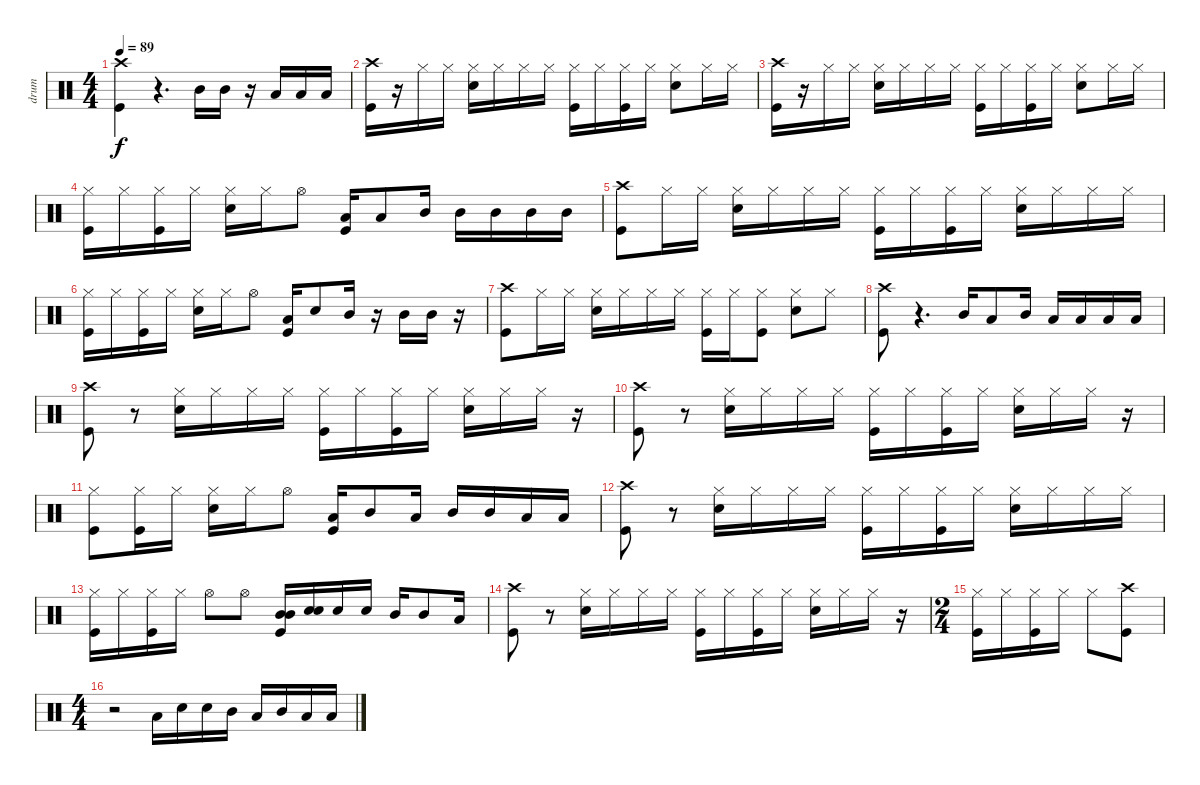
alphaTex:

\track ("drum" "drum") {instrument percussion}
\staff {score}
\articulation defaults
\ts (4 4)
\tempo 89
\clef neutral
\ks c
("Crash high (hit)" "Kick (hit)").4{dy f} r.4{d} "Mid Tom (hit)".16 "Mid Tom (hit)".16 r.16 "Low Floor Tom (hit)".16 "Low Floor Tom (hit)".16 "Low Floor Tom (hit)".16 |
("Crash high (hit)" "Kick (hit)").16 r.16 "Hi-Hat (closed)".16 "Hi-Hat (closed)".16 ("Hi-Hat (closed)" "Snare (hit) 2").16 "Hi-Hat (closed)".16 "Hi-Hat (closed)".16 "Hi-Hat (closed)".16 ("Kick (hit)" "Hi-Hat (closed)").16 "Hi-Hat (closed)".16 ("Kick (hit)" "Hi-Hat (closed)").16 "Hi-Hat (closed)".16 ("Snare (hit) 2" "Hi-Hat (closed)").8 "Hi-Hat (closed)".16 "Hi-Hat (closed)".16 |
("Crash high (hit)" "Kick (hit)").16 r.16 "Hi-Hat (closed)".16 "Hi-Hat (closed)".16 ("Hi-Hat (closed)" "Snare (hit) 2").16 "Hi-Hat (closed)".16 "Hi-Hat (closed)".16 "Hi-Hat (closed)".16 ("Kick (hit)" "Hi-Hat (closed)").16 "Hi-Hat (closed)".16 ("Kick (hit)" "Hi-Hat (closed)").16 "Hi-Hat (closed)".16 ("Snare (hit) 2" "Hi-Hat (closed)").8 "Hi-Hat (closed)".16 "Hi-Hat (closed)".16 |
("Hi-Hat (closed)" "Kick (hit)").16 "Hi-Hat (closed)".16 ("Hi-Hat (closed)" "Kick (hit)").16 "Hi-Hat (closed)".16 ("Hi-Hat (closed)" "Snare (hit) 2").16 "Hi-Hat (closed)".16 "Hi-Hat (open)".8 ("Low Floor Tom (hit)" "Kick (hit)").16 "Low Floor Tom (hit)".8 "Mid Tom (hit)".16 "Mid Tom (hit)".16 "Mid Tom (hit)".16 "Mid Tom (hit)".16 "Mid Tom (hit)".16 |
("Crash high (hit)" "Kick (hit)").8 "Hi-Hat (closed)".16 "Hi-Hat (closed)".16 ("Hi-Hat (closed)" "Snare (hit) 2").16 "Hi-Hat (closed)".16 "Hi-Hat (closed)".16 "Hi-Hat (closed)".16 ("Hi-Hat (closed)" "Kick (hit)").16 "Hi-Hat (closed)".16 ("Hi-Hat (closed)" "Kick (hit)").16 "Hi-Hat (closed)".16 ("Hi-Hat (closed)" "Snare (hit) 2").16 "Hi-Hat (closed)".16 "Hi-Hat (closed)".16 "Hi-Hat (closed)".16 |
("Kick (hit)" "Hi-Hat (closed)").16 "Hi-Hat (closed)".16 ("Kick (hit)" "Hi-Hat (closed)").16 "Hi-Hat (closed)".16 ("Snare (hit) 2" "Hi-Hat (closed)").16 "Hi-Hat (closed)".16 "Hi-Hat (open)".8 ("Low Floor Tom (hit)" "Kick (hit)").16 "Snare (hit) 2".8 "Mid Tom (hit)".16 r.16 "Mid Tom (hit)".16 "Mid Tom (hit)".16 r.16 |
("Crash high (hit)" "Kick (hit)").8 "Hi-Hat (closed)".16 "Hi-Hat (closed)".16 ("Snare (hit) 2" "Hi-Hat (closed)").16 "Hi-Hat (closed)".16 "Hi-Hat (closed)".16 "Hi-Hat (closed)".16 ("Kick (hit)" "Hi-Hat (closed)").16 "Hi-Hat (closed)".16 ("Kick (hit)" "Hi-Hat (closed)").8 ("Snare (hit) 2" "Hi-Hat (closed)").8 "Hi-Hat (closed)".8 |
("Crash high (hit)" "Kick (hit)").8 r.4{d} "Mid Tom (hit)".16 "Low Floor Tom (hit)".8 "Mid Tom (hit)".16 "Low Floor Tom (hit)".16 "Low Floor Tom (hit)".16 "Low Floor Tom (hit)".16 "Low Floor Tom (hit)".16 |
("Crash high (hit)" "Kick (hit)").8 r.8 ("Hi-Hat (closed)" "Snare (hit) 2").16 "Hi-Hat (closed)".16 "Hi-Hat (closed)".16 "Hi-Hat (closed)".16 ("Hi-Hat (closed)" "Kick (hit)").16 "Hi-Hat (closed)".16 ("Hi-Hat (closed)" "Kick (hit)").16 "Hi-Hat (closed)".16 ("Hi-Hat (closed)" "Snare (hit) 2").16 "Hi-Hat (closed)".16 "Hi-Hat (closed)".16 r.16 |
("Crash high (hit)" "Kick (hit)").8 r.8 ("Hi-Hat (closed)" "Snare (hit) 2").16 "Hi-Hat (closed)".16 "Hi-Hat (closed)".16 "Hi-Hat (closed)".16 ("Hi-Hat (closed)" "Kick (hit)").16 "Hi-Hat (closed)".16 ("Hi-Hat (closed)" "Kick (hit)").16 "Hi-Hat (closed)".16 ("Hi-Hat (closed)" "Snare (hit) 2").16 "Hi-Hat (closed)".16 "Hi-Hat (closed)".16 r.16 |
("Hi-Hat (closed)" "Kick (hit)").8 ("Hi-Hat (closed)" "Kick (hit)").16 "Hi-Hat (closed)".16 ("Hi-Hat (closed)" "Snare (hit) 2").16 "Hi-Hat (closed)".16 "Hi-Hat (open)".8 ("Low Floor Tom (hit)" "Kick (hit)").16 "Mid Tom (hit)".8 "Low Tom (hit)".16 "Mid Tom (hit)".16 "Mid Tom (hit)".16 "Low Floor Tom (hit)".16 "Low Floor Tom (hit)".16 |
("Crash high (hit)" "Kick (hit)").8 r.8 ("Hi-Hat (closed)" "Snare (hit) 2").16 "Hi-Hat (closed)".16 "Hi-Hat (closed)".16 "Hi-Hat (closed)".16 ("Hi-Hat (closed)" "Kick (hit)").16 "Hi-Hat (closed)".16 ("Hi-Hat (closed)" "Kick (hit)").16 "Hi-Hat (closed)".16 ("Hi-Hat (closed)" "Snare (hit) 2").16 "Hi-Hat (closed)".16 "Hi-Hat (closed)".16 "Hi-Hat (closed)".16 |
("Kick (hit)" "Hi-Hat (closed)").16 "Hi-Hat (closed)".16 ("Hi-Hat (closed)" "Kick (hit)").16 "Hi-Hat (closed)".16 "Hi-Hat (open)".8 "Hi-Hat (open)".8 ("Mid Tom (hit)" "Kick (hit)" "Mid Tom (hit)").16 ("Snare (hit) 2" "Snare (hit) 2").16 "Snare (hit) 2".16 "Snare (hit) 2".16 "Mid Tom (hit)".16 "Mid Tom (hit)".8 "Low Tom (hit)".16 |
("Crash high (hit)" "Kick (hit)").8 r.8 ("Hi-Hat (closed)" "Snare (hit) 2").16 "Hi-Hat (closed)".16 "Hi-Hat (closed)".16 "Hi-Hat (closed)".16 ("Hi-Hat (closed)" "Kick (hit)").16 "Hi-Hat (closed)".16 ("Hi-Hat (closed)" "Kick (hit)").16 "Hi-Hat (closed)".16 ("Hi-Hat (closed)" "Snare (hit) 2").16 "Hi-Hat (closed)".16 "Hi-Hat (closed)".16 r.16 |
\ts (2 4)
("Kick (hit)" "Hi-Hat (closed)").16 "Hi-Hat (closed)".16 ("Hi-Hat (closed)" "Kick (hit)").16 "Hi-Hat (closed)".16 "Hi-Hat (closed)".8 ("Kick (hit)" "Crash high (hit)").8 |
\ts (4 4)
r.2 "Low Floor Tom (hit)".16 "Snare (hit) 2".16 "Snare (hit) 2".16 "Mid Tom (hit)".16 "Low Floor Tom (hit)".16 "Mid Tom (hit)".16 "Low Floor Tom (hit)".16 "Low Floor Tom (hit)".16
